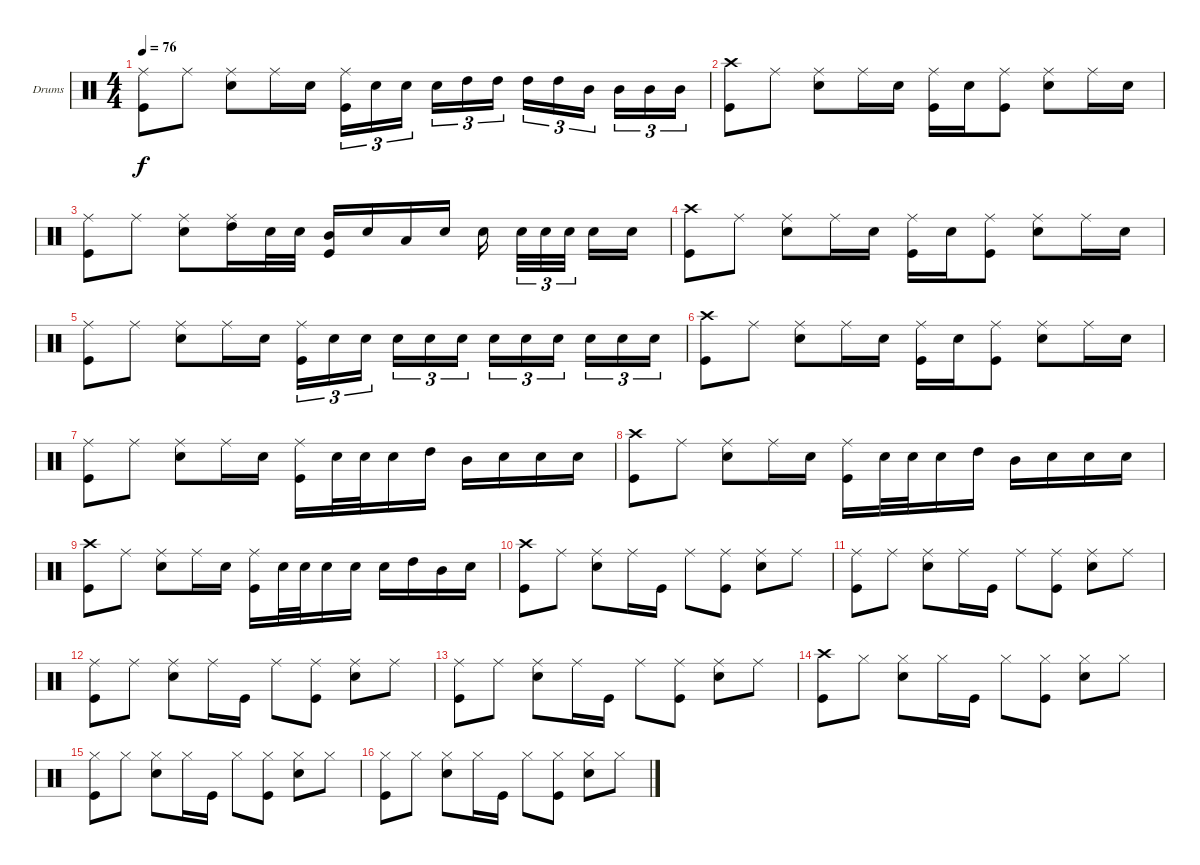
\bracketExtendMode groupsimilarinstruments
\firstSystemTrackNameOrientation horizontal
\otherSystemsTrackNameOrientation horizontal
\track ("Drums" "Drums") {instrument percussion}
\staff {score}
\articulation defaults
\ts (4 4)
\tempo 76
\clef neutral
\ks c
("Ride (middle)" "Kick (hit)").8{dy f} "Ride (middle)".8 ("Ride (middle)" "Snare (hit) 2").8 "Ride (middle)".16 "Snare (hit) 2".16 ("Ride (middle)" "Kick (hit)").16{tu (3 2)} "Snare (hit) 2".16{tu (3 2)} "Snare (hit) 2".16{tu (3 2)} "Snare (hit) 2".16{tu (3 2)} "High Tom (hit)".16{tu (3 2)} "High Tom (hit)".16{tu (3 2)} "High Tom (hit)".16{tu (3 2)} "High Tom (hit)".16{tu (3 2)} "Mid Tom (hit)".16{tu (3 2)} "Mid Tom (hit)".16{tu (3 2)} "Mid Tom (hit)".16{tu (3 2)} "Mid Tom (hit)".16{tu (3 2)} |
("Crash high (hit)" "Kick (hit)").8 "Ride (middle)".8 ("Ride (middle)" "Snare (hit) 2").8 "Ride (middle)".16 "Snare (hit) 2".16 ("Ride (middle)" "Kick (hit)").16 "Snare (hit) 2".16 ("Ride (middle)" "Kick (hit)").8 ("Ride (middle)" "Snare (hit) 2").8 "Ride (middle)".16 "Snare (hit) 2".16 |
("Ride (middle)" "Kick (hit)").8 "Ride (middle)".8 ("Ride (middle)" "Snare (hit) 2").8 ("Ride (middle)" "High Tom (hit)").16 "Snare (hit) 2".32 "Snare (hit) 2".32 ("Mid Tom (hit)" "Kick (hit)").16 "Snare (hit) 2".16 "Low Tom (hit)".16 "Snare (hit) 2".16 "Snare (hit) 2".16 "Snare (hit) 2".32{tu (3 2)} "Snare (hit) 2".32{tu (3 2)} "Snare (hit) 2".32{tu (3 2)} "Snare (hit) 2".16 "Snare (hit) 2".16 |
("Crash high (hit)" "Kick (hit)").8 "Ride (middle)".8 ("Ride (middle)" "Snare (hit) 2").8 "Ride (middle)".16 "Snare (hit) 2".16 ("Ride (middle)" "Kick (hit)").16 "Snare (hit) 2".16 ("Ride (middle)" "Kick (hit)").8 ("Ride (middle)" "Snare (hit) 2").8 "Ride (middle)".16 "Snare (hit) 2".16 |
("Ride (middle)" "Kick (hit)").8 "Ride (middle)".8 ("Ride (middle)" "Snare (hit) 2").8 "Ride (middle)".16 "Snare (hit) 2".16 ("Ride (middle)" "Kick (hit)").16{tu (3 2)} "Snare (hit) 2".16{tu (3 2)} "Snare (hit) 2".16{tu (3 2)} "Snare (hit) 2".16{tu (3 2)} "Snare (hit) 2".16{tu (3 2)} "Snare (hit) 2".16{tu (3 2)} "Snare (hit) 2".16{tu (3 2)} "Snare (hit) 2".16{tu (3 2)} "Snare (hit) 2".16{tu (3 2)} "Snare (hit) 2".16{tu (3 2)} "Snare (hit) 2".16{tu (3 2)} "Snare (hit) 2".16{tu (3 2)} |
("Crash high (hit)" "Kick (hit)").8 "Ride (middle)".8 ("Ride (middle)" "Snare (hit) 2").8 "Ride (middle)".16 "Snare (hit) 2".16 ("Ride (middle)" "Kick (hit)").16 "Snare (hit) 2".16 ("Ride (middle)" "Kick (hit)").8 ("Ride (middle)" "Snare (hit) 2").8 "Ride (middle)".16 "Snare (hit) 2".16 |
("Ride (middle)" "Kick (hit)").8 "Ride (middle)".8 ("Ride (middle)" "Snare (hit) 2").8 "Ride (middle)".16 "Snare (hit) 2".16 ("Ride (middle)" "Kick (hit)").16 "Snare (hit) 2".32 "Snare (hit) 2".32 "Snare (hit) 2".16 "High Tom (hit)".16 "Mid Tom (hit)".16 "Snare (hit) 2".16 "Snare (hit) 2".16 "Snare (hit) 2".16 |
("Crash high (hit)" "Kick (hit)").8 "Ride (middle)".8 ("Ride (middle)" "Snare (hit) 2").8 "Ride (middle)".16 "Snare (hit) 2".16 ("Ride (middle)" "Kick (hit)").16 "Snare (hit) 2".32 "Snare (hit) 2".32 "Snare (hit) 2".16 "High Tom (hit)".16 "Mid Tom (hit)".16 "Snare (hit) 2".16 "Snare (hit) 2".16 "Snare (hit) 2".16 |
("Crash high (hit)" "Kick (hit)").8 "Ride (middle)".8 ("Ride (middle)" "Snare (hit) 2").8 "Ride (middle)".16 "Snare (hit) 2".16 ("Ride (middle)" "Kick (hit)").16 "Snare (hit) 2".32 "Snare (hit) 2".32 "Snare (hit) 2".16 "Snare (hit) 2".16 "Snare (hit) 2".16 "High Tom (hit)".16 "Mid Tom (hit)".16 "Snare (hit) 2".16 |
("Crash high (hit)" "Kick (hit)").8 "Ride (middle)".8 ("Ride (middle)" "Snare (hit) 2").8 "Ride (middle)".16 "Kick (hit)".16 "Ride (middle)".8 ("Ride (middle)" "Kick (hit)").8 ("Ride (middle)" "Snare (hit) 2").8 "Ride (middle)".8 |
("Ride (middle)" "Kick (hit)").8 "Ride (middle)".8 ("Ride (middle)" "Snare (hit) 2").8 "Ride (middle)".16 "Kick (hit)".16 "Ride (middle)".8 ("Ride (middle)" "Kick (hit)").8 ("Ride (middle)" "Snare (hit) 2").8 "Ride (middle)".8 |
("Ride (middle)" "Kick (hit)").8 "Ride (middle)".8 ("Ride (middle)" "Snare (hit) 2").8 "Ride (middle)".16 "Kick (hit)".16 "Ride (middle)".8 ("Ride (middle)" "Kick (hit)").8 ("Ride (middle)" "Snare (hit) 2").8 "Ride (middle)".8 |
("Ride (middle)" "Kick (hit)").8 "Ride (middle)".8 ("Ride (middle)" "Snare (hit) 2").8 "Ride (middle)".16 "Kick (hit)".16 "Ride (middle)".8 ("Ride (middle)" "Kick (hit)").8 ("Ride (middle)" "Snare (hit) 2").8 "Ride (middle)".8 |
("Crash high (hit)" "Kick (hit)").8 "Hi-Hat (closed)".8 ("Hi-Hat (closed)" "Snare (hit) 2").8 "Hi-Hat (closed)".16 "Kick (hit)".16 "Hi-Hat (closed)".8 ("Hi-Hat (closed)" "Kick (hit)").8 ("Hi-Hat (closed)" "Snare (hit) 2").8 "Hi-Hat (closed)".8 |
("Hi-Hat (closed)" "Kick (hit)").8 "Hi-Hat (closed)".8 ("Hi-Hat (closed)" "Snare (hit) 2").8 "Hi-Hat (closed)".16 "Kick (hit)".16 "Hi-Hat (closed)".8 ("Hi-Hat (closed)" "Kick (hit)").8 ("Hi-Hat (closed)" "Snare (hit) 2").8 "Hi-Hat (closed)".8 |
("Hi-Hat (closed)" "Kick (hit)").8 "Hi-Hat (closed)".8 ("Hi-Hat (closed)" "Snare (hit) 2").8 "Hi-Hat (closed)".16 "Kick (hit)".16 "Hi-Hat (closed)".8 ("Hi-Hat (closed)" "Kick (hit)").8 ("Hi-Hat (closed)" "Snare (hit) 2").8 "Hi-Hat (closed)".8
